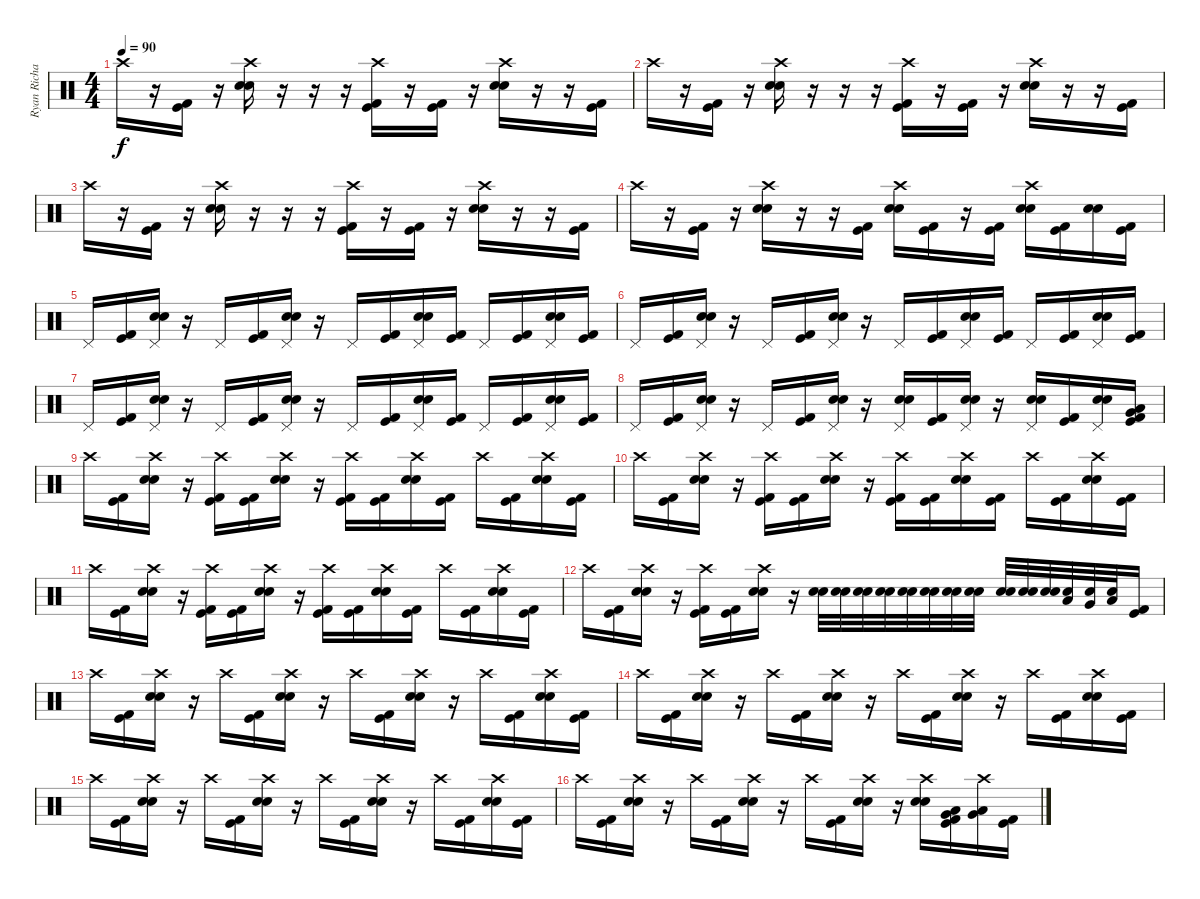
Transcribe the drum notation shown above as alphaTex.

\track ("Ryan Richards" "Ryan Richa") {instrument percussion}
\staff {score}
\articulation defaults
\ts (4 4)
\tempo 90
\clef neutral
\ks c "Crash high (hit)".16{dy f}
r.16 ("Kick (hit)" "Kick (hit) 2").16 r.16 ("Snare (hit) 2" "Crash high (hit)" "Electric Snare (hit)").16 r.16 r.16 r.16 ("Kick (hit)" "Crash high (hit)" "Kick (hit) 2").16 r.16 ("Kick (hit)" "Kick (hit) 2").16 r.16 ("Snare (hit) 2" "Crash high (hit)" "Electric Snare (hit)").16 r.16 r.16 ("Kick (hit)" "Kick (hit) 2").16 |
"Crash high (hit)".16 r.16 ("Kick (hit)" "Kick (hit) 2").16 r.16 ("Snare (hit) 2" "Crash high (hit)" "Electric Snare (hit)").16 r.16 r.16 r.16 ("Kick (hit)" "Crash high (hit)" "Kick (hit) 2").16 r.16 ("Kick (hit)" "Kick (hit) 2").16 r.16 ("Snare (hit) 2" "Crash high (hit)" "Electric Snare (hit)").16 r.16 r.16 ("Kick (hit)" "Kick (hit) 2").16 |
"Crash high (hit)".16 r.16 ("Kick (hit)" "Kick (hit) 2").16 r.16 ("Snare (hit) 2" "Crash high (hit)" "Electric Snare (hit)").16 r.16 r.16 r.16 ("Kick (hit)" "Crash high (hit)" "Kick (hit) 2").16 r.16 ("Kick (hit)" "Kick (hit) 2").16 r.16 ("Snare (hit) 2" "Crash high (hit)" "Electric Snare (hit)").16 r.16 r.16 ("Kick (hit)" "Kick (hit) 2").16 |
"Crash high (hit)".16 r.16 ("Kick (hit)" "Kick (hit) 2").16 r.16 ("Snare (hit) 2" "Crash high (hit)" "Electric Snare (hit)").16 r.16 r.16 ("Kick (hit)" "Kick (hit) 2").16 ("Snare (hit) 2" "Crash high (hit)" "Electric Snare (hit)").16 ("Kick (hit)" "Kick (hit) 2").16 r.16 ("Kick (hit)" "Kick (hit) 2").16 ("Snare (hit) 2" "Crash high (hit)" "Electric Snare (hit)").16 ("Kick (hit)" "Kick (hit) 2").16 ("Snare (hit) 2" "Electric Snare (hit)").16 ("Kick (hit)" "Kick (hit) 2").16 |
"Pedal Hi-Hat (hit)".16 ("Kick (hit)" "Kick (hit) 2").16 ("Snare (hit) 2" "Pedal Hi-Hat (hit)" "Electric Snare (hit)").16 r.16 "Pedal Hi-Hat (hit)".16 ("Kick (hit)" "Kick (hit) 2").16 ("Snare (hit) 2" "Pedal Hi-Hat (hit)" "Electric Snare (hit)").16 r.16 "Pedal Hi-Hat (hit)".16 ("Kick (hit)" "Kick (hit) 2").16 ("Snare (hit) 2" "Pedal Hi-Hat (hit)" "Electric Snare (hit)").16 ("Kick (hit)" "Kick (hit) 2").16 "Pedal Hi-Hat (hit)".16 ("Kick (hit)" "Kick (hit) 2").16 ("Snare (hit) 2" "Pedal Hi-Hat (hit)" "Electric Snare (hit)").16 ("Kick (hit)" "Kick (hit) 2").16 |
"Pedal Hi-Hat (hit)".16 ("Kick (hit)" "Kick (hit) 2").16 ("Snare (hit) 2" "Pedal Hi-Hat (hit)" "Electric Snare (hit)").16 r.16 "Pedal Hi-Hat (hit)".16 ("Kick (hit)" "Kick (hit) 2").16 ("Snare (hit) 2" "Pedal Hi-Hat (hit)" "Electric Snare (hit)").16 r.16 "Pedal Hi-Hat (hit)".16 ("Kick (hit)" "Kick (hit) 2").16 ("Snare (hit) 2" "Pedal Hi-Hat (hit)" "Electric Snare (hit)").16 ("Kick (hit)" "Kick (hit) 2").16 "Pedal Hi-Hat (hit)".16 ("Kick (hit)" "Kick (hit) 2").16 ("Snare (hit) 2" "Pedal Hi-Hat (hit)" "Electric Snare (hit)").16 ("Kick (hit)" "Kick (hit) 2").16 |
"Pedal Hi-Hat (hit)".16 ("Kick (hit)" "Kick (hit) 2").16 ("Snare (hit) 2" "Pedal Hi-Hat (hit)" "Electric Snare (hit)").16 r.16 "Pedal Hi-Hat (hit)".16 ("Kick (hit)" "Kick (hit) 2").16 ("Snare (hit) 2" "Pedal Hi-Hat (hit)" "Electric Snare (hit)").16 r.16 "Pedal Hi-Hat (hit)".16 ("Kick (hit)" "Kick (hit) 2").16 ("Snare (hit) 2" "Pedal Hi-Hat (hit)" "Electric Snare (hit)").16 ("Kick (hit)" "Kick (hit) 2").16 "Pedal Hi-Hat (hit)".16 ("Kick (hit)" "Kick (hit) 2").16 ("Snare (hit) 2" "Pedal Hi-Hat (hit)" "Electric Snare (hit)").16 ("Kick (hit)" "Kick (hit) 2").16 |
"Pedal Hi-Hat (hit)".16 ("Kick (hit)" "Kick (hit) 2").16 ("Snare (hit) 2" "Pedal Hi-Hat (hit)" "Electric Snare (hit)").16 r.16 "Pedal Hi-Hat (hit)".16 ("Kick (hit)" "Kick (hit) 2").16 ("Snare (hit) 2" "Pedal Hi-Hat (hit)" "Electric Snare (hit)").16 r.16 ("Snare (hit) 2" "Pedal Hi-Hat (hit)" "Electric Snare (hit)").16 ("Kick (hit)" "Kick (hit) 2").16 ("Snare (hit) 2" "Pedal Hi-Hat (hit)" "Electric Snare (hit)").16 r.16 ("Snare (hit) 2" "Pedal Hi-Hat (hit)" "Electric Snare (hit)").16 ("Kick (hit)" "Kick (hit) 2").16 ("Snare (hit) 2" "Pedal Hi-Hat (hit)" "Electric Snare (hit)").16 ("Kick (hit)" "Very Low Tom (hit)" "Low Floor Tom (hit)" "Kick (hit) 2").16 |
"Crash high (hit)".16 ("Kick (hit)" "Kick (hit) 2").16 ("Snare (hit) 2" "Crash high (hit)" "Electric Snare (hit)").16 r.16 ("Kick (hit)" "Crash high (hit)" "Kick (hit) 2").16 ("Kick (hit)" "Kick (hit) 2").16 ("Snare (hit) 2" "Crash high (hit)" "Electric Snare (hit)").16 r.16 ("Kick (hit)" "Crash high (hit)" "Kick (hit) 2").16 ("Kick (hit)" "Kick (hit) 2").16 ("Snare (hit) 2" "Crash high (hit)" "Electric Snare (hit)").16 ("Kick (hit)" "Kick (hit) 2").16 "Crash high (hit)".16 ("Kick (hit)" "Kick (hit) 2").16 ("Snare (hit) 2" "Crash high (hit)" "Electric Snare (hit)").16 ("Kick (hit)" "Kick (hit) 2").16 |
"Crash high (hit)".16 ("Kick (hit)" "Kick (hit) 2").16 ("Snare (hit) 2" "Crash high (hit)" "Electric Snare (hit)").16 r.16 ("Kick (hit)" "Crash high (hit)" "Kick (hit) 2").16 ("Kick (hit)" "Kick (hit) 2").16 ("Snare (hit) 2" "Crash high (hit)" "Electric Snare (hit)").16 r.16 ("Kick (hit)" "Crash high (hit)" "Kick (hit) 2").16 ("Kick (hit)" "Kick (hit) 2").16 ("Snare (hit) 2" "Crash high (hit)" "Electric Snare (hit)").16 ("Kick (hit)" "Kick (hit) 2").16 "Crash high (hit)".16 ("Kick (hit)" "Kick (hit) 2").16 ("Snare (hit) 2" "Crash high (hit)" "Electric Snare (hit)").16 ("Kick (hit)" "Kick (hit) 2").16 |
"Crash high (hit)".16 ("Kick (hit)" "Kick (hit) 2").16 ("Snare (hit) 2" "Crash high (hit)" "Electric Snare (hit)").16 r.16 ("Kick (hit)" "Crash high (hit)" "Kick (hit) 2").16 ("Kick (hit)" "Kick (hit) 2").16 ("Snare (hit) 2" "Crash high (hit)" "Electric Snare (hit)").16 r.16 ("Kick (hit)" "Crash high (hit)" "Kick (hit) 2").16 ("Kick (hit)" "Kick (hit) 2").16 ("Snare (hit) 2" "Crash high (hit)" "Electric Snare (hit)").16 ("Kick (hit)" "Kick (hit) 2").16 "Crash high (hit)".16 ("Kick (hit)" "Kick (hit) 2").16 ("Snare (hit) 2" "Crash high (hit)" "Electric Snare (hit)").16 ("Kick (hit)" "Kick (hit) 2").16 |
"Crash high (hit)".16 ("Kick (hit)" "Kick (hit) 2").16 ("Snare (hit) 2" "Crash high (hit)" "Electric Snare (hit)").16 r.16 ("Kick (hit)" "Crash high (hit)" "Kick (hit) 2").16 ("Kick (hit)" "Kick (hit) 2").16 ("Snare (hit) 2" "Crash high (hit)" "Electric Snare (hit)").16 r.16 ("Snare (hit) 2" "Electric Snare (hit)").32 ("Snare (hit) 2" "Electric Snare (hit)").32 ("Snare (hit) 2" "Electric Snare (hit)").32 ("Snare (hit) 2" "Electric Snare (hit)").32 ("Snare (hit) 2" "Electric Snare (hit)").32 ("Snare (hit) 2" "Electric Snare (hit)").32 ("Snare (hit) 2" "Electric Snare (hit)").32 ("Snare (hit) 2" "Electric Snare (hit)").32 ("Snare (hit) 2" "Electric Snare (hit)").32 ("Snare (hit) 2" "Electric Snare (hit)").32 ("Snare (hit) 2" "Electric Snare (hit)").32 ("Low Floor Tom (hit)" "Electric Snare (hit)").32 ("Very Low Tom (hit)" "Electric Snare (hit)").32 ("Low Tom (hit)" "Electric Snare (hit)").32 ("Kick (hit)" "Kick (hit) 2").16 |
"Crash high (hit)".16 ("Kick (hit)" "Kick (hit) 2").16 ("Snare (hit) 2" "Crash high (hit)" "Electric Snare (hit)").16 r.16 "Crash high (hit)".16 ("Kick (hit)" "Kick (hit) 2").16 ("Snare (hit) 2" "Crash high (hit)" "Electric Snare (hit)").16 r.16 "Crash high (hit)".16 ("Kick (hit)" "Kick (hit) 2").16 ("Snare (hit) 2" "Crash high (hit)" "Electric Snare (hit)").16 r.16 "Crash high (hit)".16 ("Kick (hit)" "Kick (hit) 2").16 ("Snare (hit) 2" "Crash high (hit)" "Electric Snare (hit)").16 ("Kick (hit)" "Kick (hit) 2").16 |
"Crash high (hit)".16 ("Kick (hit)" "Kick (hit) 2").16 ("Snare (hit) 2" "Crash high (hit)" "Electric Snare (hit)").16 r.16 "Crash high (hit)".16 ("Kick (hit)" "Kick (hit) 2").16 ("Snare (hit) 2" "Crash high (hit)" "Electric Snare (hit)").16 r.16 "Crash high (hit)".16 ("Kick (hit)" "Kick (hit) 2").16 ("Snare (hit) 2" "Crash high (hit)" "Electric Snare (hit)").16 r.16 "Crash high (hit)".16 ("Kick (hit)" "Kick (hit) 2").16 ("Snare (hit) 2" "Crash high (hit)" "Electric Snare (hit)").16 ("Kick (hit)" "Kick (hit) 2").16 |
"Crash high (hit)".16 ("Kick (hit)" "Kick (hit) 2").16 ("Snare (hit) 2" "Crash high (hit)" "Electric Snare (hit)").16 r.16 "Crash high (hit)".16 ("Kick (hit)" "Kick (hit) 2").16 ("Snare (hit) 2" "Crash high (hit)" "Electric Snare (hit)").16 r.16 "Crash high (hit)".16 ("Kick (hit)" "Kick (hit) 2").16 ("Snare (hit) 2" "Crash high (hit)" "Electric Snare (hit)").16 r.16 "Crash high (hit)".16 ("Kick (hit)" "Kick (hit) 2").16 ("Snare (hit) 2" "Crash high (hit)" "Electric Snare (hit)").16 ("Kick (hit)" "Kick (hit) 2").16 |
"Crash high (hit)".16 ("Kick (hit)" "Kick (hit) 2").16 ("Snare (hit) 2" "Crash high (hit)" "Electric Snare (hit)").16 r.16 "Crash high (hit)".16 ("Kick (hit)" "Kick (hit) 2").16 ("Snare (hit) 2" "Crash high (hit)" "Electric Snare (hit)").16 r.16 "Crash high (hit)".16 ("Kick (hit)" "Kick (hit) 2").16 ("Snare (hit) 2" "Crash high (hit)" "Electric Snare (hit)").16 r.16 ("Snare (hit) 2" "Crash high (hit)" "Electric Snare (hit)").16 ("Kick (hit)" "Low Tom (hit)" "Very Low Tom (hit)" "Kick (hit) 2").16 ("Very Low Tom (hit)" "Crash high (hit)" "Low Floor Tom (hit)").16 ("Kick (hit)" "Kick (hit) 2").16
